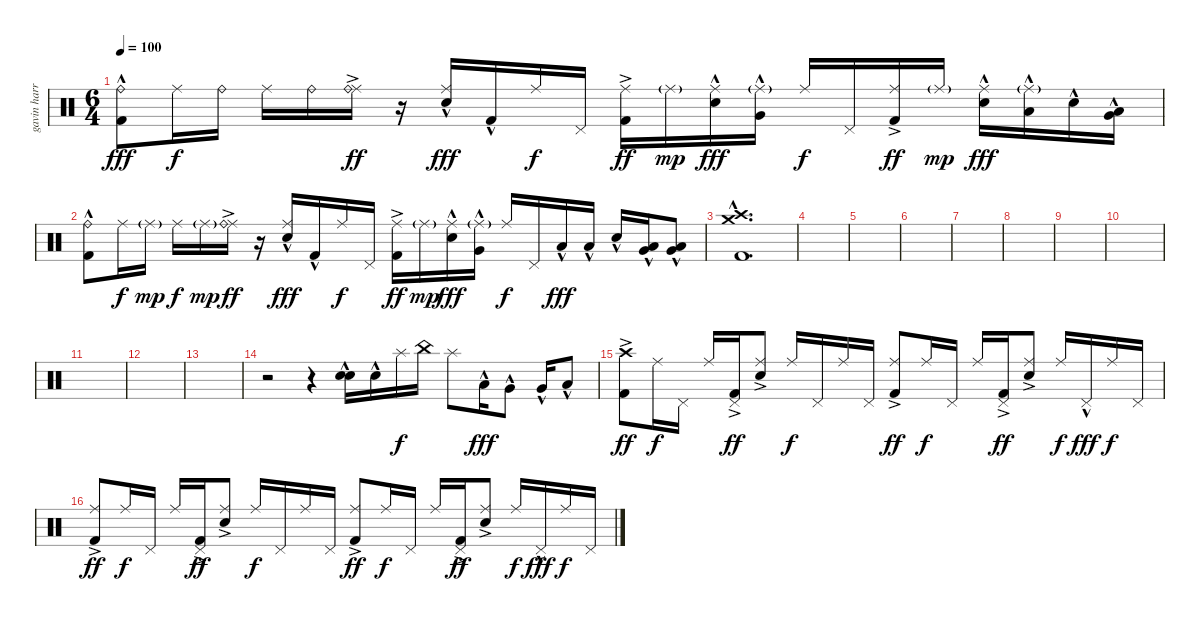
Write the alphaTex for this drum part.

\track ("gavin harrison" "gavin harr") {instrument percussion}
\staff {score}
\articulation defaults
\ts (6 4)
\tempo 100
\clef neutral
\ks c
("Ride (bell)" "Kick (hit) 2"{hac}).8{dy fff} "Ride (middle)".16{dy f} "Ride (bell)".16 "Ride (middle)".16 "Ride (bell)".16 ("Ride (middle)"{ac} "Ride (bell)").16{dy ff} r.16 ("Ride (middle)" "Electric Snare (hit)"{hac}).16{dy fff} "Kick (hit) 2"{hac}.16 "Ride (middle)".16{dy f} "Pedal Hi-Hat (hit)".16 ("Ride (middle)" "Kick (hit) 2"{ac}).16{dy ff} "Ride (middle)"{g}.16{dy mp} ("Ride (middle)" "Electric Snare (hit)"{hac}).16{dy fff} ("Ride (middle)"{g} "Very Low Tom (hit)"{hac}).16 "Ride (middle)".16{dy f} "Pedal Hi-Hat (hit)".16 ("Ride (middle)" "Kick (hit) 2"{ac}).16{dy ff} "Ride (middle)"{g}.16{dy mp} ("Ride (middle)" "Electric Snare (hit)"{hac}).16{dy fff} ("Ride (middle)"{g} "Low Floor Tom (hit)"{hac}).16 "Electric Snare (hit)"{hac}.16 ("Low Floor Tom (hit)" "Very Low Tom (hit)"{hac}).16 |
("Ride (bell)" "Kick (hit) 2"{hac}).8 "Ride (middle)".16{dy f} "Ride (middle)"{g}.16{dy mp} "Ride (middle)".16{dy f} "Ride (middle)"{g}.16{dy mp} ("Ride (middle)"{ac} "Ride (bell)").16{dy ff} r.16 ("Ride (middle)" "Electric Snare (hit)"{hac}).16{dy fff} "Kick (hit) 2"{hac}.16 "Ride (middle)".16{dy f} "Pedal Hi-Hat (hit)".16 ("Ride (middle)" "Kick (hit) 2"{ac}).16{dy ff} "Ride (middle)"{g}.16{dy mp} ("Ride (middle)" "Electric Snare (hit)"{hac}).16{dy fff} ("Ride (middle)"{g} "Very Low Tom (hit)"{hac}).16 "Ride (middle)".16{dy f} "Pedal Hi-Hat (hit)".16 "Low Floor Tom (hit)"{hac}.16{dy fff} "Low Floor Tom (hit)"{hac}.16 "Electric Snare (hit)"{hac}.16 ("Low Floor Tom (hit)"{hac} "Very Low Tom (hit)").16 ("Low Floor Tom (hit)"{hac} "Very Low Tom (hit)").8 |
("Crash high (hit)" "Crash medium (hit)" "Kick (hit) 2"{hac}).1{d} |
|
|
|
|
|
|
|
|
|
|
r.2 r.4 ("Electric Snare (hit)" "Electric Snare (hit)"{hac}).16 "Electric Snare (hit)"{hac}.16 "Splash (hit)".16{dy f} "China (hit)".16 "Splash (hit)".8 "Low Tom (hit)"{hac}.16{dy fff} "Very Low Tom (hit)"{hac}.8 "Very Low Tom (hit)"{hac}.16 "Low Floor Tom (hit)"{hac}.8 |
("Crash high (hit)" "Kick (hit) 2"{ac}).8{dy ff} "Ride (middle)".16{dy f} "Pedal Hi-Hat (hit)".16 "Ride (middle)".16 ("Pedal Hi-Hat (hit)" "Kick (hit) 2"{ac}).16{dy ff} ("Ride (middle)" "Electric Snare (hit)"{ac}).8 "Ride (middle)".16{dy f} "Pedal Hi-Hat (hit)".16 "Ride (middle)".16 "Pedal Hi-Hat (hit)".16 ("Ride (middle)" "Kick (hit) 2"{ac}).8{dy ff} "Ride (middle)".16{dy f} "Pedal Hi-Hat (hit)".16 "Ride (middle)".16 ("Pedal Hi-Hat (hit)" "Kick (hit) 2"{ac}).16{dy ff} ("Ride (middle)" "Electric Snare (hit)"{ac}).8 "Ride (middle)".16{dy f} "Pedal Hi-Hat (hit)"{hac}.16{dy fff} "Ride (middle)".16{dy f} "Pedal Hi-Hat (hit)".16 |
("Ride (middle)" "Kick (hit) 2"{ac}).8{dy ff} "Ride (middle)".16{dy f} "Pedal Hi-Hat (hit)".16 "Ride (middle)".16 ("Pedal Hi-Hat (hit)" "Kick (hit) 2"{ac}).16{dy ff} ("Ride (middle)" "Electric Snare (hit)"{ac}).8 "Ride (middle)".16{dy f} "Pedal Hi-Hat (hit)".16 "Ride (middle)".16 "Pedal Hi-Hat (hit)".16 ("Ride (middle)" "Kick (hit) 2"{ac}).8{dy ff} "Ride (middle)".16{dy f} "Pedal Hi-Hat (hit)".16 "Ride (middle)".16 ("Pedal Hi-Hat (hit)" "Kick (hit) 2"{ac}).16{dy ff} ("Ride (middle)" "Electric Snare (hit)"{ac}).8 "Ride (middle)".16{dy f} "Pedal Hi-Hat (hit)"{hac}.16{dy fff} "Ride (middle)".16{dy f} "Pedal Hi-Hat (hit)".16
